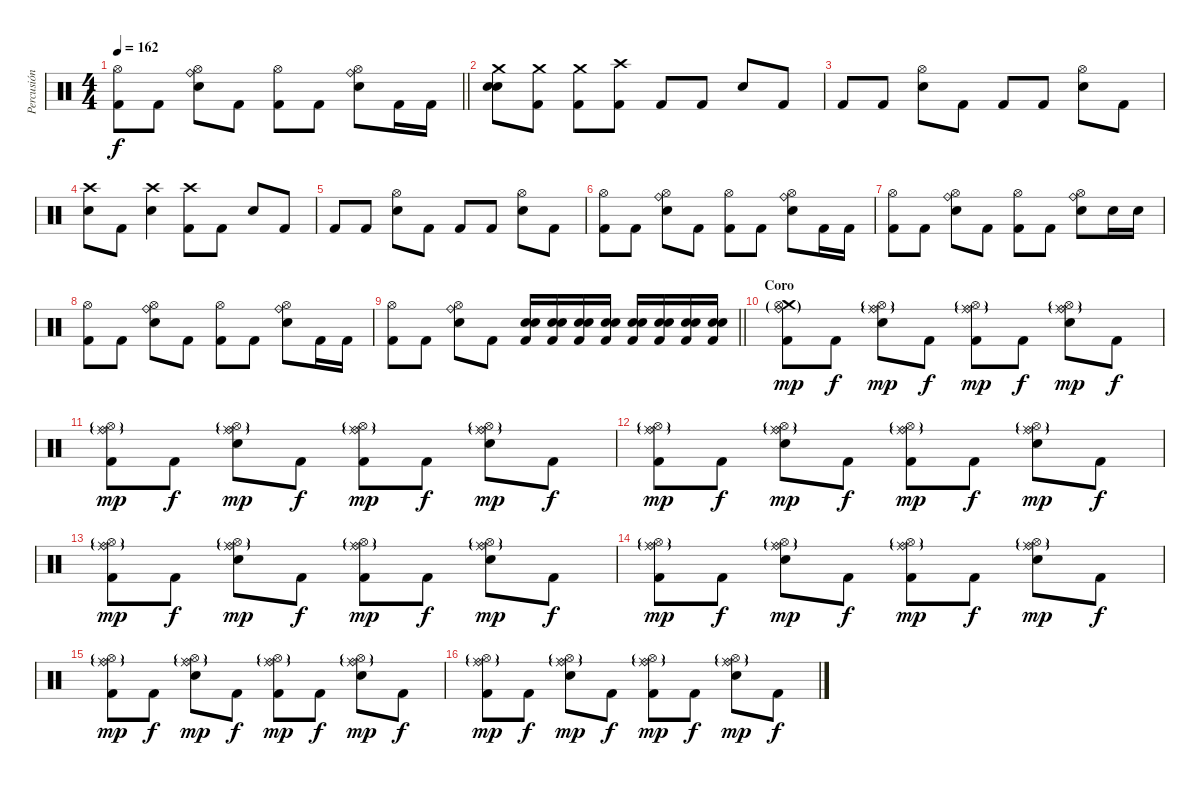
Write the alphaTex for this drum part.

\track ("Percusión" "Percusión") {instrument percussion}
\staff {score}
\articulation defaults
\ts (4 4)
\tempo 162
\clef neutral
\barLineRight lightlight
\ks c
("Hi-Hat (open)" "Kick (hit) 2").8{dy f} "Kick (hit) 2".8 ("Ride (bell)" "Hi-Hat (open)" "Electric Snare (hit)").8 "Kick (hit) 2".8 ("Hi-Hat (open)" "Kick (hit) 2").8 "Kick (hit) 2".8 ("Ride (bell)" "Hi-Hat (open)" "Electric Snare (hit)").8 "Kick (hit) 2".16 "Kick (hit) 2".16 |
("Crash medium (hit)" "Snare (hit) 2" "Electric Snare (hit)").8 ("Crash medium (hit)" "Kick (hit) 2").8 ("Crash medium (hit)" "Kick (hit) 2").8 ("Crash high (hit)" "Kick (hit) 2").8 "Kick (hit) 2".8 "Kick (hit) 2".8 "Electric Snare (hit)".8 "Kick (hit) 2".8 |
"Kick (hit) 2".8 "Kick (hit) 2".8 ("Hi-Hat (open)" "Electric Snare (hit)").8 "Kick (hit) 2".8 "Kick (hit) 2".8 "Kick (hit) 2".8 ("Hi-Hat (open)" "Electric Snare (hit)").8 "Kick (hit) 2".8 |
("Crash high (hit)" "Electric Snare (hit)").8 "Kick (hit) 2".8 ("Crash high (hit)" "Electric Snare (hit)").4 ("Crash high (hit)" "Kick (hit) 2").8 "Kick (hit) 2".8 "Electric Snare (hit)".8 "Kick (hit) 2".8 |
"Kick (hit) 2".8 "Kick (hit) 2".8 ("Hi-Hat (open)" "Electric Snare (hit)").8 "Kick (hit) 2".8 "Kick (hit) 2".8 "Kick (hit) 2".8 ("Hi-Hat (open)" "Electric Snare (hit)").8 "Kick (hit) 2".8 |
("Hi-Hat (open)" "Kick (hit) 2").8 "Kick (hit) 2".8 ("Ride (bell)" "Hi-Hat (open)" "Electric Snare (hit)").8 "Kick (hit) 2".8 ("Hi-Hat (open)" "Kick (hit) 2").8 "Kick (hit) 2".8 ("Ride (bell)" "Hi-Hat (open)" "Electric Snare (hit)").8 "Kick (hit) 2".16 "Kick (hit) 2".16 |
("Hi-Hat (open)" "Kick (hit) 2").8 "Kick (hit) 2".8 ("Ride (bell)" "Hi-Hat (open)" "Electric Snare (hit)").8 "Kick (hit) 2".8 ("Hi-Hat (open)" "Kick (hit) 2").8 "Kick (hit) 2".8 ("Ride (bell)" "Hi-Hat (open)" "Electric Snare (hit)").8 "Electric Snare (hit)".16 "Electric Snare (hit)".16 |
("Hi-Hat (open)" "Kick (hit) 2").8 "Kick (hit) 2".8 ("Ride (bell)" "Hi-Hat (open)" "Electric Snare (hit)").8 "Kick (hit) 2".8 ("Hi-Hat (open)" "Kick (hit) 2").8 "Kick (hit) 2".8 ("Ride (bell)" "Hi-Hat (open)" "Electric Snare (hit)").8 "Kick (hit) 2".16 "Kick (hit) 2".16 |
\barLineRight lightlight
("Hi-Hat (open)" "Kick (hit) 2").8 "Kick (hit) 2".8 ("Ride (bell)" "Hi-Hat (open)" "Electric Snare (hit)").8 "Kick (hit) 2".8 ("Snare (hit) 2" "Electric Snare (hit)" "Kick (hit) 2").16 ("Snare (hit) 2" "Electric Snare (hit)" "Kick (hit) 2").16 ("Snare (hit) 2" "Electric Snare (hit)" "Kick (hit) 2").16 ("Snare (hit) 2" "Electric Snare (hit)" "Kick (hit) 2").16 ("Snare (hit) 2" "Electric Snare (hit)" "Kick (hit) 2").16 ("Snare (hit) 2" "Electric Snare (hit)" "Kick (hit) 2").16 ("Snare (hit) 2" "Electric Snare (hit)" "Kick (hit) 2").16 ("Snare (hit) 2" "Electric Snare (hit)" "Kick (hit) 2").16 |
\section ("" "Coro")
("Crash medium (hit)" "Hi-Hat (open)"{g} "Ride (bell)"{g} "Kick (hit) 2").8{dy mp} "Kick (hit) 2".8{dy f} ("Ride (middle)" "Hi-Hat (open)"{g} "Ride (bell)"{g} "Electric Snare (hit)").8{dy mp} "Kick (hit) 2".8{dy f} ("Ride (middle)" "Hi-Hat (open)"{g} "Ride (bell)"{g} "Kick (hit) 2").8{dy mp} "Kick (hit) 2".8{dy f} ("Ride (middle)" "Hi-Hat (open)"{g} "Ride (bell)"{g} "Electric Snare (hit)").8{dy mp} "Kick (hit) 2".8{dy f} |
("Ride (middle)" "Hi-Hat (open)"{g} "Ride (bell)"{g} "Kick (hit) 2").8{dy mp} "Kick (hit) 2".8{dy f} ("Ride (middle)" "Hi-Hat (open)"{g} "Ride (bell)"{g} "Electric Snare (hit)").8{dy mp} "Kick (hit) 2".8{dy f} ("Ride (middle)" "Hi-Hat (open)"{g} "Ride (bell)"{g} "Kick (hit) 2").8{dy mp} "Kick (hit) 2".8{dy f} ("Ride (middle)" "Hi-Hat (open)"{g} "Ride (bell)"{g} "Electric Snare (hit)").8{dy mp} "Kick (hit) 2".8{dy f} |
("Ride (middle)" "Hi-Hat (open)"{g} "Ride (bell)"{g} "Kick (hit) 2").8{dy mp} "Kick (hit) 2".8{dy f} ("Ride (middle)" "Hi-Hat (open)"{g} "Ride (bell)"{g} "Electric Snare (hit)").8{dy mp} "Kick (hit) 2".8{dy f} ("Ride (middle)" "Hi-Hat (open)"{g} "Ride (bell)"{g} "Kick (hit) 2").8{dy mp} "Kick (hit) 2".8{dy f} ("Ride (middle)" "Hi-Hat (open)"{g} "Ride (bell)"{g} "Electric Snare (hit)").8{dy mp} "Kick (hit) 2".8{dy f} |
("Ride (middle)" "Hi-Hat (open)"{g} "Ride (bell)"{g} "Kick (hit) 2").8{dy mp} "Kick (hit) 2".8{dy f} ("Ride (middle)" "Hi-Hat (open)"{g} "Ride (bell)"{g} "Electric Snare (hit)").8{dy mp} "Kick (hit) 2".8{dy f} ("Ride (middle)" "Hi-Hat (open)"{g} "Ride (bell)"{g} "Kick (hit) 2").8{dy mp} "Kick (hit) 2".8{dy f} ("Ride (middle)" "Hi-Hat (open)"{g} "Ride (bell)"{g} "Electric Snare (hit)").8{dy mp} "Kick (hit) 2".8{dy f} |
("Ride (middle)" "Hi-Hat (open)"{g} "Ride (bell)"{g} "Kick (hit) 2").8{dy mp} "Kick (hit) 2".8{dy f} ("Ride (middle)" "Hi-Hat (open)"{g} "Ride (bell)"{g} "Electric Snare (hit)").8{dy mp} "Kick (hit) 2".8{dy f} ("Ride (middle)" "Hi-Hat (open)"{g} "Ride (bell)"{g} "Kick (hit) 2").8{dy mp} "Kick (hit) 2".8{dy f} ("Ride (middle)" "Hi-Hat (open)"{g} "Ride (bell)"{g} "Electric Snare (hit)").8{dy mp} "Kick (hit) 2".8{dy f} |
("Ride (middle)" "Hi-Hat (open)"{g} "Ride (bell)"{g} "Kick (hit) 2").8{dy mp} "Kick (hit) 2".8{dy f} ("Ride (middle)" "Hi-Hat (open)"{g} "Ride (bell)"{g} "Electric Snare (hit)").8{dy mp} "Kick (hit) 2".8{dy f} ("Ride (middle)" "Hi-Hat (open)"{g} "Ride (bell)"{g} "Kick (hit) 2").8{dy mp} "Kick (hit) 2".8{dy f} ("Ride (middle)" "Hi-Hat (open)"{g} "Ride (bell)"{g} "Electric Snare (hit)").8{dy mp} "Kick (hit) 2".8{dy f} |
("Ride (middle)" "Hi-Hat (open)"{g} "Ride (bell)"{g} "Kick (hit) 2").8{dy mp} "Kick (hit) 2".8{dy f} ("Ride (middle)" "Hi-Hat (open)"{g} "Ride (bell)"{g} "Electric Snare (hit)").8{dy mp} "Kick (hit) 2".8{dy f} ("Ride (middle)" "Hi-Hat (open)"{g} "Ride (bell)"{g} "Kick (hit) 2").8{dy mp} "Kick (hit) 2".8{dy f} ("Ride (middle)" "Hi-Hat (open)"{g} "Ride (bell)"{g} "Electric Snare (hit)").8{dy mp} "Kick (hit) 2".8{dy f}
